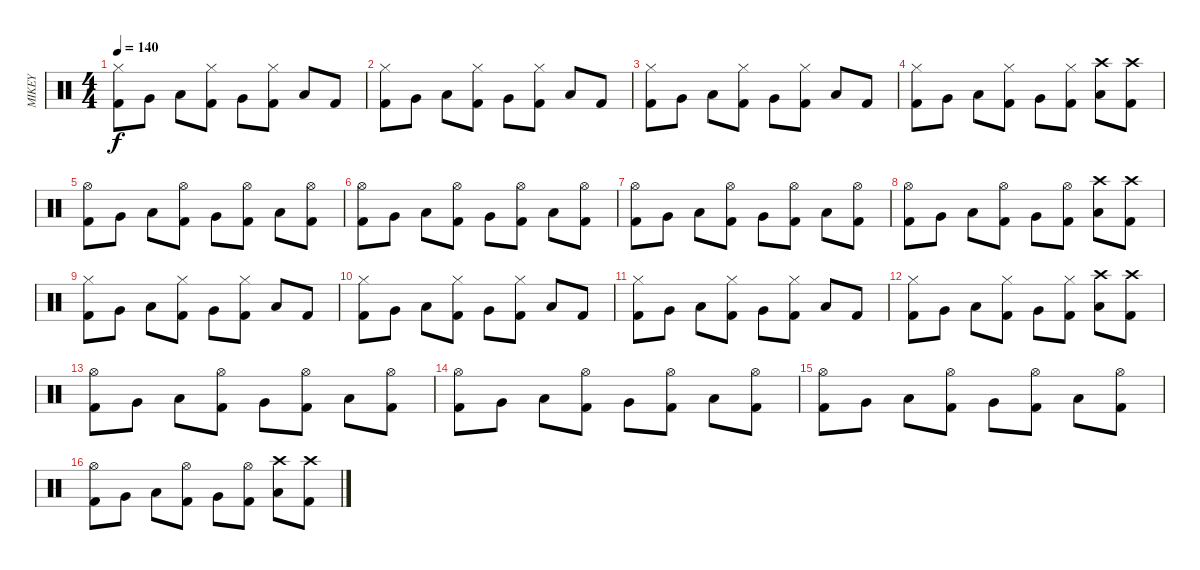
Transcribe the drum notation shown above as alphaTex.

\track ("MIKEY" "MIKEY") {instrument percussion}
\staff {score}
\articulation defaults
\ts (4 4)
\tempo 140
\clef neutral
\ks c
("Hi-Hat (closed)" "Kick (hit) 2").8{dy f} "Very Low Tom (hit)".8 "Low Tom (hit)".8 ("Hi-Hat (closed)" "Kick (hit) 2").8 "Very Low Tom (hit)".8 ("Hi-Hat (closed)" "Kick (hit) 2").8 "Low Tom (hit)".8 "Kick (hit) 2".8 |
("Hi-Hat (closed)" "Kick (hit) 2").8 "Very Low Tom (hit)".8 "Low Tom (hit)".8 ("Hi-Hat (closed)" "Kick (hit) 2").8 "Very Low Tom (hit)".8 ("Hi-Hat (closed)" "Kick (hit) 2").8 "Low Tom (hit)".8 "Kick (hit) 2".8 |
("Hi-Hat (closed)" "Kick (hit) 2").8 "Very Low Tom (hit)".8 "Low Tom (hit)".8 ("Hi-Hat (closed)" "Kick (hit) 2").8 "Very Low Tom (hit)".8 ("Hi-Hat (closed)" "Kick (hit) 2").8 "Low Tom (hit)".8 "Kick (hit) 2".8 |
("Hi-Hat (closed)" "Kick (hit) 2").8 "Very Low Tom (hit)".8 "Low Tom (hit)".8 ("Hi-Hat (closed)" "Kick (hit) 2").8 "Very Low Tom (hit)".8 ("Hi-Hat (closed)" "Kick (hit) 2").8 ("Crash high (hit)" "Low Tom (hit)").8 ("Crash high (hit)" "Kick (hit) 2").8 |
("Hi-Hat (open)" "Kick (hit) 2").8 "Very Low Tom (hit)".8 "Low Tom (hit)".8 ("Hi-Hat (open)" "Kick (hit) 2").8 "Very Low Tom (hit)".8 ("Hi-Hat (open)" "Kick (hit) 2").8 "Low Tom (hit)".8 ("Hi-Hat (open)" "Kick (hit) 2").8 |
("Hi-Hat (open)" "Kick (hit) 2").8 "Very Low Tom (hit)".8 "Low Tom (hit)".8 ("Hi-Hat (open)" "Kick (hit) 2").8 "Very Low Tom (hit)".8 ("Hi-Hat (open)" "Kick (hit) 2").8 "Low Tom (hit)".8 ("Hi-Hat (open)" "Kick (hit) 2").8 |
("Hi-Hat (open)" "Kick (hit) 2").8 "Very Low Tom (hit)".8 "Low Tom (hit)".8 ("Hi-Hat (open)" "Kick (hit) 2").8 "Very Low Tom (hit)".8 ("Hi-Hat (open)" "Kick (hit) 2").8 "Low Tom (hit)".8 ("Hi-Hat (open)" "Kick (hit) 2").8 |
("Hi-Hat (open)" "Kick (hit) 2").8 "Very Low Tom (hit)".8 "Low Tom (hit)".8 ("Hi-Hat (open)" "Kick (hit) 2").8 "Very Low Tom (hit)".8 ("Hi-Hat (open)" "Kick (hit) 2").8 ("Crash high (hit)" "Low Tom (hit)").8 ("Crash high (hit)" "Kick (hit) 2").8 |
("Hi-Hat (closed)" "Kick (hit) 2").8 "Very Low Tom (hit)".8 "Low Tom (hit)".8 ("Hi-Hat (closed)" "Kick (hit) 2").8 "Very Low Tom (hit)".8 ("Hi-Hat (closed)" "Kick (hit) 2").8 "Low Tom (hit)".8 "Kick (hit) 2".8 |
("Hi-Hat (closed)" "Kick (hit) 2").8 "Very Low Tom (hit)".8 "Low Tom (hit)".8 ("Hi-Hat (closed)" "Kick (hit) 2").8 "Very Low Tom (hit)".8 ("Hi-Hat (closed)" "Kick (hit) 2").8 "Low Tom (hit)".8 "Kick (hit) 2".8 |
("Hi-Hat (closed)" "Kick (hit) 2").8 "Very Low Tom (hit)".8 "Low Tom (hit)".8 ("Hi-Hat (closed)" "Kick (hit) 2").8 "Very Low Tom (hit)".8 ("Hi-Hat (closed)" "Kick (hit) 2").8 "Low Tom (hit)".8 "Kick (hit) 2".8 |
("Hi-Hat (closed)" "Kick (hit) 2").8 "Very Low Tom (hit)".8 "Low Tom (hit)".8 ("Hi-Hat (closed)" "Kick (hit) 2").8 "Very Low Tom (hit)".8 ("Hi-Hat (closed)" "Kick (hit) 2").8 ("Crash high (hit)" "Low Tom (hit)").8 ("Crash high (hit)" "Kick (hit) 2").8 |
("Hi-Hat (open)" "Kick (hit) 2").8 "Very Low Tom (hit)".8 "Low Tom (hit)".8 ("Hi-Hat (open)" "Kick (hit) 2").8 "Very Low Tom (hit)".8 ("Hi-Hat (open)" "Kick (hit) 2").8 "Low Tom (hit)".8 ("Hi-Hat (open)" "Kick (hit) 2").8 |
("Hi-Hat (open)" "Kick (hit) 2").8 "Very Low Tom (hit)".8 "Low Tom (hit)".8 ("Hi-Hat (open)" "Kick (hit) 2").8 "Very Low Tom (hit)".8 ("Hi-Hat (open)" "Kick (hit) 2").8 "Low Tom (hit)".8 ("Hi-Hat (open)" "Kick (hit) 2").8 |
("Hi-Hat (open)" "Kick (hit) 2").8 "Very Low Tom (hit)".8 "Low Tom (hit)".8 ("Hi-Hat (open)" "Kick (hit) 2").8 "Very Low Tom (hit)".8 ("Hi-Hat (open)" "Kick (hit) 2").8 "Low Tom (hit)".8 ("Hi-Hat (open)" "Kick (hit) 2").8 |
("Hi-Hat (open)" "Kick (hit) 2").8 "Very Low Tom (hit)".8 "Low Tom (hit)".8 ("Hi-Hat (open)" "Kick (hit) 2").8 "Very Low Tom (hit)".8 ("Hi-Hat (open)" "Kick (hit) 2").8 ("Crash high (hit)" "Low Tom (hit)").8 ("Crash high (hit)" "Kick (hit) 2").8
